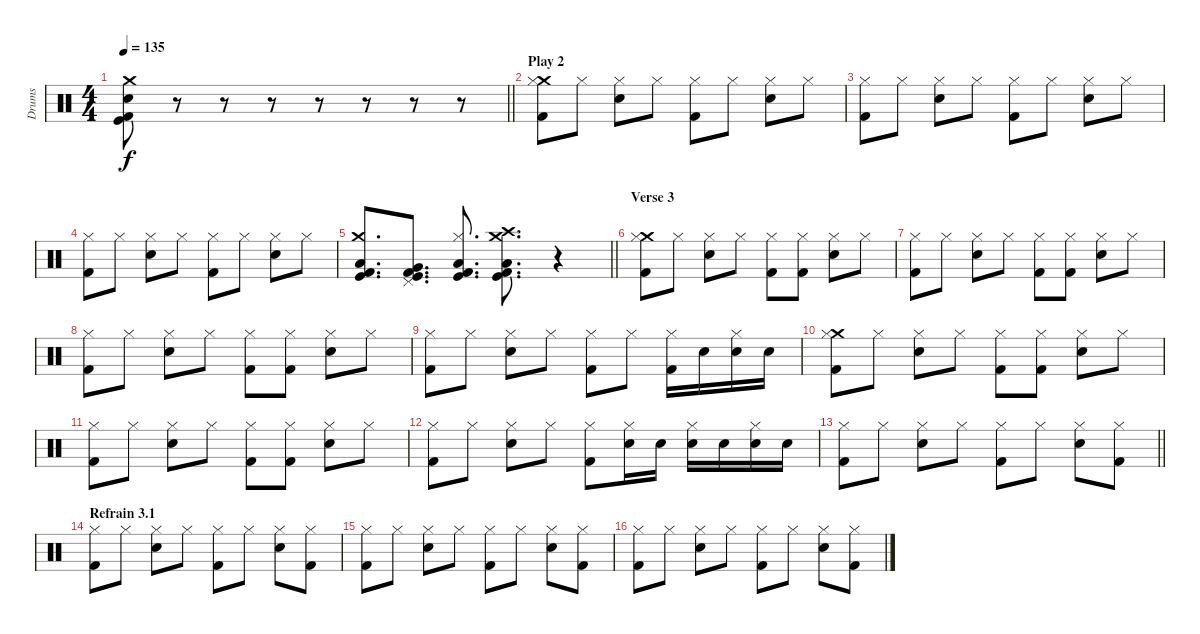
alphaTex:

\track ("Drums" "Drums") {instrument percussion}
\staff {score}
\articulation defaults
\ts (4 4)
\tempo 135
\clef neutral
\barLineRight lightlight
\ks c
("Kick (hit)" "Snare (hit) 2" "Kick (hit) 2" "Crash medium (hit)").8{dy f} r.8 r.8 r.8 r.8 r.8 r.8 r.8 |
\section ("" "Play 2")
("Kick (hit) 2" "Crash medium (hit)" "Hi-Hat (closed)").8 "Hi-Hat (closed)".8 ("Electric Snare (hit)" "Hi-Hat (closed)").8 "Hi-Hat (closed)".8 ("Kick (hit) 2" "Hi-Hat (closed)").8 "Hi-Hat (closed)".8 ("Electric Snare (hit)" "Hi-Hat (closed)").8 "Hi-Hat (closed)".8 |
("Kick (hit) 2" "Hi-Hat (closed)").8 "Hi-Hat (closed)".8 ("Electric Snare (hit)" "Hi-Hat (closed)").8 "Hi-Hat (closed)".8 ("Kick (hit) 2" "Hi-Hat (closed)").8 "Hi-Hat (closed)".8 ("Electric Snare (hit)" "Hi-Hat (closed)").8 "Hi-Hat (closed)".8 |
("Kick (hit) 2" "Hi-Hat (closed)").8 "Hi-Hat (closed)".8 ("Electric Snare (hit)" "Hi-Hat (closed)").8 "Hi-Hat (closed)".8 ("Kick (hit) 2" "Hi-Hat (closed)").8 "Hi-Hat (closed)".8 ("Electric Snare (hit)" "Hi-Hat (closed)").8 "Hi-Hat (closed)".8 |
\barLineRight lightlight
("Low Tom (hit)" "Kick (hit)" "Crash medium (hit)" "Kick (hit) 2").8{d} ("Very Low Tom (hit)" "Kick (hit)" "Pedal Hi-Hat (hit)" "Kick (hit) 2").8{d} ("Low Floor Tom (hit)" "Kick (hit)" "Hi-Hat (closed)" "Kick (hit) 2").8{d} ("Low Tom (hit)" "Kick (hit)" "Crash medium (hit)" "Kick (hit) 2" "Crash high (hit)").8{d} r.4 |
\section ("" "Verse 3")
("Kick (hit) 2" "Crash medium (hit)" "Hi-Hat (closed)").8 "Hi-Hat (closed)".8 ("Snare (hit) 2" "Hi-Hat (closed)").8 "Hi-Hat (closed)".8 ("Kick (hit) 2" "Hi-Hat (closed)").8 ("Kick (hit) 2" "Hi-Hat (closed)").8 ("Snare (hit) 2" "Hi-Hat (closed)").8 "Hi-Hat (closed)".8 |
("Kick (hit) 2" "Hi-Hat (closed)").8 "Hi-Hat (closed)".8 ("Snare (hit) 2" "Hi-Hat (closed)").8 "Hi-Hat (closed)".8 ("Kick (hit) 2" "Hi-Hat (closed)").8 ("Kick (hit) 2" "Hi-Hat (closed)").8 ("Snare (hit) 2" "Hi-Hat (closed)").8 "Hi-Hat (closed)".8 |
("Kick (hit) 2" "Hi-Hat (closed)").8 "Hi-Hat (closed)".8 ("Snare (hit) 2" "Hi-Hat (closed)").8 "Hi-Hat (closed)".8 ("Kick (hit) 2" "Hi-Hat (closed)").8 ("Kick (hit) 2" "Hi-Hat (closed)").8 ("Snare (hit) 2" "Hi-Hat (closed)").8 "Hi-Hat (closed)".8 |
("Kick (hit) 2" "Hi-Hat (closed)").8 "Hi-Hat (closed)".8 ("Snare (hit) 2" "Hi-Hat (closed)").8 "Hi-Hat (closed)".8 ("Kick (hit) 2" "Hi-Hat (closed)").8 "Hi-Hat (closed)".8 ("Kick (hit) 2" "Hi-Hat (closed)").16 "Electric Snare (hit)".16 ("Snare (hit) 2" "Hi-Hat (closed)").16 "Electric Snare (hit)".16 |
("Kick (hit) 2" "Crash medium (hit)" "Hi-Hat (closed)").8 "Hi-Hat (closed)".8 ("Snare (hit) 2" "Hi-Hat (closed)").8 "Hi-Hat (closed)".8 ("Kick (hit) 2" "Hi-Hat (closed)").8 ("Kick (hit) 2" "Hi-Hat (closed)").8 ("Snare (hit) 2" "Hi-Hat (closed)").8 "Hi-Hat (closed)".8 |
("Kick (hit) 2" "Hi-Hat (closed)").8 "Hi-Hat (closed)".8 ("Snare (hit) 2" "Hi-Hat (closed)").8 "Hi-Hat (closed)".8 ("Kick (hit) 2" "Hi-Hat (closed)").8 ("Kick (hit) 2" "Hi-Hat (closed)").8 ("Snare (hit) 2" "Hi-Hat (closed)").8 "Hi-Hat (closed)".8 |
("Kick (hit) 2" "Hi-Hat (closed)").8 "Hi-Hat (closed)".8 ("Snare (hit) 2" "Hi-Hat (closed)").8 "Hi-Hat (closed)".8 ("Kick (hit) 2" "Hi-Hat (closed)").8 ("Electric Snare (hit)" "Hi-Hat (closed)").16 "Electric Snare (hit)".16 ("Electric Snare (hit)" "Hi-Hat (closed)").16 "Electric Snare (hit)".16 ("Electric Snare (hit)" "Hi-Hat (closed)").16 "Electric Snare (hit)".16 |
\barLineRight lightlight
("Kick (hit) 2" "Hi-Hat (closed)").8 "Hi-Hat (closed)".8 ("Electric Snare (hit)" "Hi-Hat (closed)").8 "Hi-Hat (closed)".8 ("Kick (hit) 2" "Hi-Hat (closed)").8 "Hi-Hat (closed)".8 ("Electric Snare (hit)" "Hi-Hat (closed)").8 ("Kick (hit) 2" "Hi-Hat (closed)").8 |
\section ("" "Refrain 3.1")
("Kick (hit) 2" "Hi-Hat (closed)").8 "Hi-Hat (closed)".8 ("Electric Snare (hit)" "Hi-Hat (closed)").8 "Hi-Hat (closed)".8 ("Kick (hit) 2" "Hi-Hat (closed)").8 "Hi-Hat (closed)".8 ("Electric Snare (hit)" "Hi-Hat (closed)").8 ("Kick (hit) 2" "Hi-Hat (closed)").8 |
("Kick (hit) 2" "Hi-Hat (closed)").8 "Hi-Hat (closed)".8 ("Electric Snare (hit)" "Hi-Hat (closed)").8 "Hi-Hat (closed)".8 ("Kick (hit) 2" "Hi-Hat (closed)").8 "Hi-Hat (closed)".8 ("Electric Snare (hit)" "Hi-Hat (closed)").8 ("Kick (hit) 2" "Hi-Hat (closed)").8 |
("Kick (hit) 2" "Hi-Hat (closed)").8 "Hi-Hat (closed)".8 ("Electric Snare (hit)" "Hi-Hat (closed)").8 "Hi-Hat (closed)".8 ("Kick (hit) 2" "Hi-Hat (closed)").8 "Hi-Hat (closed)".8 ("Electric Snare (hit)" "Hi-Hat (closed)").8 ("Kick (hit) 2" "Hi-Hat (closed)").8
